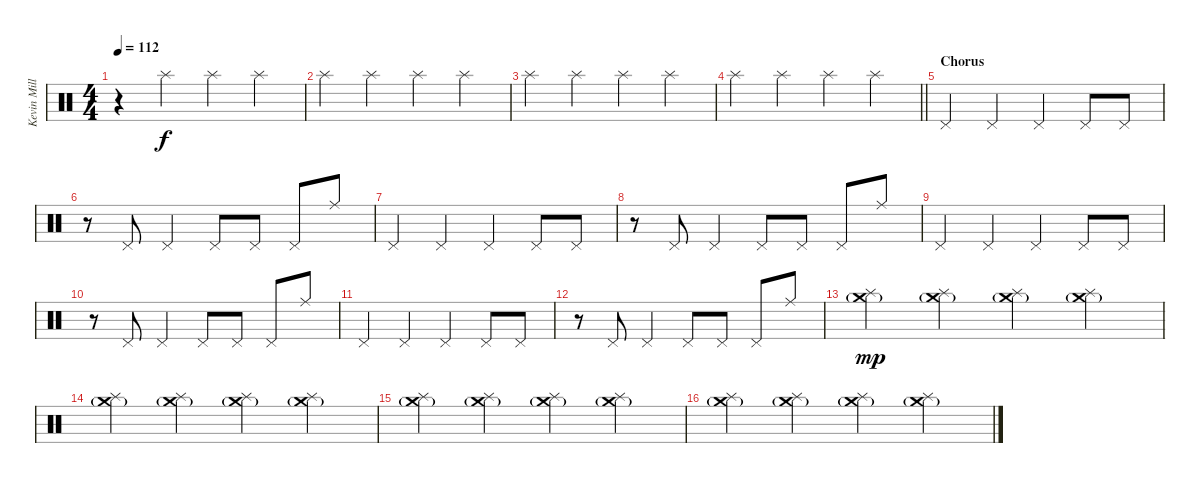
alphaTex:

\track ("Kevin Miller (Drums)" "Kevin Mill") {instrument percussion}
\staff {score}
\articulation defaults
\ts (4 4)
\tempo 112
\clef neutral
\ks c
r.4{dy f} "Splash (hit)".4 "Splash (hit)".4 "Splash (hit)".4 |
"Splash (hit)".4 "Splash (hit)".4 "Splash (hit)".4 "Splash (hit)".4 |
"Splash (hit)".4 "Splash (hit)".4 "Splash (hit)".4 "Splash (hit)".4 |
\barLineRight lightlight "Splash (hit)".4 "Splash (hit)".4 "Splash (hit)".4 "Splash (hit)".4
|
\section ("" "Chorus")
"Pedal Hi-Hat (hit)".4 "Pedal Hi-Hat (hit)".4 "Pedal Hi-Hat (hit)".4 "Pedal Hi-Hat (hit)".8 "Pedal Hi-Hat (hit)".8 |
r.8 "Pedal Hi-Hat (hit)".8 "Pedal Hi-Hat (hit)".4 "Pedal Hi-Hat (hit)".8 "Pedal Hi-Hat (hit)".8 "Pedal Hi-Hat (hit)".8 "Ride (middle)".8 |
"Pedal Hi-Hat (hit)".4 "Pedal Hi-Hat (hit)".4 "Pedal Hi-Hat (hit)".4 "Pedal Hi-Hat (hit)".8 "Pedal Hi-Hat (hit)".8 |
r.8 "Pedal Hi-Hat (hit)".8 "Pedal Hi-Hat (hit)".4 "Pedal Hi-Hat (hit)".8 "Pedal Hi-Hat (hit)".8 "Pedal Hi-Hat (hit)".8 "Ride (middle)".8 |
"Pedal Hi-Hat (hit)".4 "Pedal Hi-Hat (hit)".4 "Pedal Hi-Hat (hit)".4 "Pedal Hi-Hat (hit)".8 "Pedal Hi-Hat (hit)".8 |
r.8 "Pedal Hi-Hat (hit)".8 "Pedal Hi-Hat (hit)".4 "Pedal Hi-Hat (hit)".8 "Pedal Hi-Hat (hit)".8 "Pedal Hi-Hat (hit)".8 "Ride (middle)".8 |
"Pedal Hi-Hat (hit)".4 "Pedal Hi-Hat (hit)".4 "Pedal Hi-Hat (hit)".4 "Pedal Hi-Hat (hit)".8 "Pedal Hi-Hat (hit)".8 |
r.8 "Pedal Hi-Hat (hit)".8 "Pedal Hi-Hat (hit)".4 "Pedal Hi-Hat (hit)".8 "Pedal Hi-Hat (hit)".8 "Pedal Hi-Hat (hit)".8 "Ride (middle)".8 |
("Splash (hit)" "Crash medium (hit)"{g}).4{dy mp} ("Splash (hit)" "Crash medium (hit)"{g}).4 ("Splash (hit)" "Crash medium (hit)"{g}).4 ("Splash (hit)" "Crash medium (hit)"{g}).4 |
("Splash (hit)" "Crash medium (hit)"{g}).4 ("Splash (hit)" "Crash medium (hit)"{g}).4 ("Splash (hit)" "Crash medium (hit)"{g}).4 ("Splash (hit)" "Crash medium (hit)"{g}).4 |
("Splash (hit)" "Crash medium (hit)"{g}).4 ("Splash (hit)" "Crash medium (hit)"{g}).4 ("Splash (hit)" "Crash medium (hit)"{g}).4 ("Splash (hit)" "Crash medium (hit)"{g}).4 |
("Splash (hit)" "Crash medium (hit)"{g}).4 ("Splash (hit)" "Crash medium (hit)"{g}).4 ("Splash (hit)" "Crash medium (hit)"{g}).4 ("Splash (hit)" "Crash medium (hit)"{g}).4
